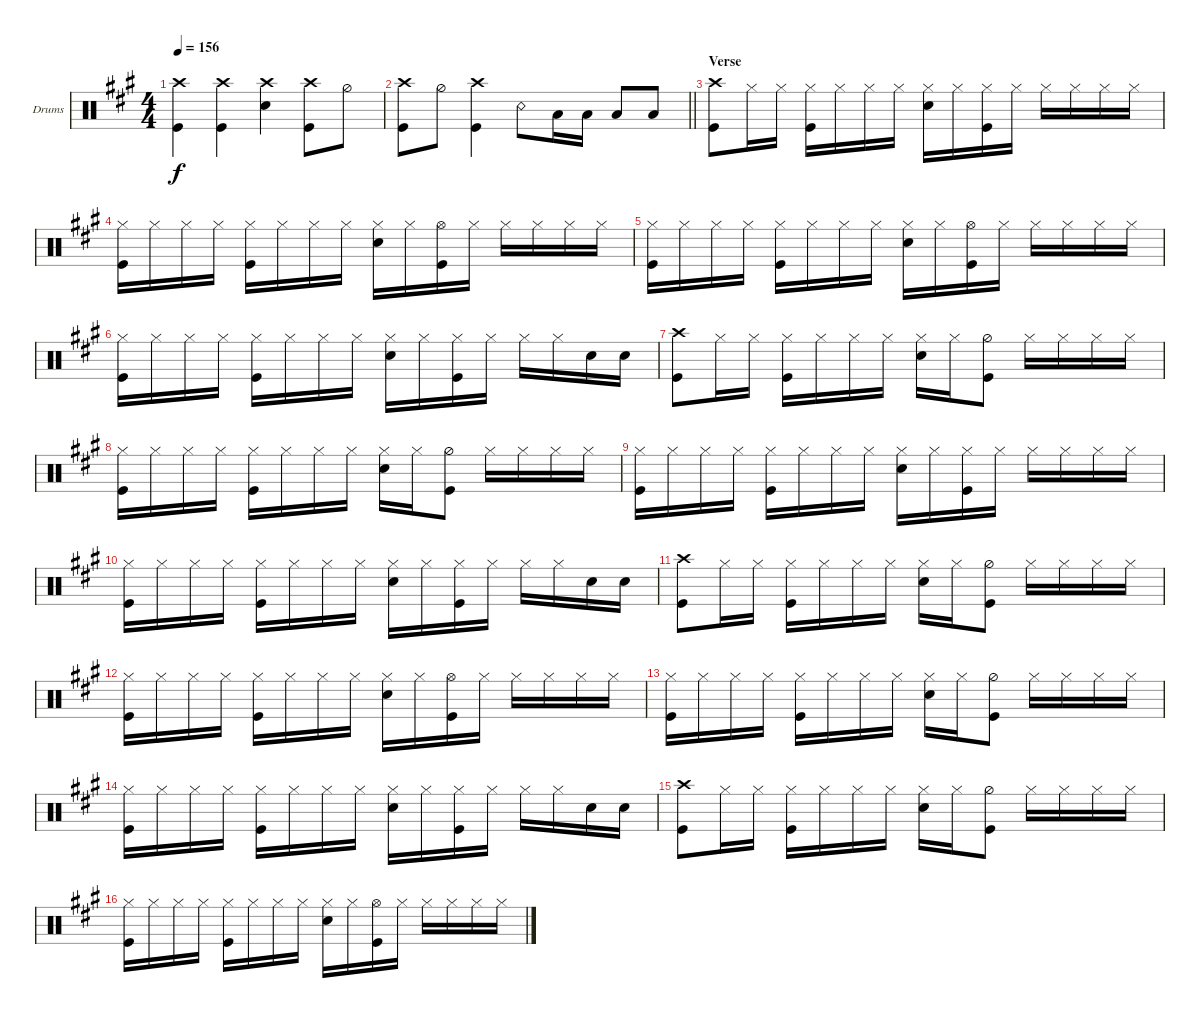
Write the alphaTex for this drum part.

\defaultSystemsLayout 4
\bracketExtendMode groupsimilarinstruments
\firstSystemTrackNameOrientation horizontal
\otherSystemsTrackNameOrientation horizontal
\track ("Drums" "Drums") {instrument percussion}
\staff {score}
\articulation defaults
\ts (4 4)
\tempo 156
\clef neutral
\ks a
("Kick (hit)" "Crash high (hit)").4{dy f} ("Kick (hit)" "Crash high (hit)").4 ("Crash high (hit)" "Snare (hit) 2").4 ("Kick (hit)" "Crash high (hit)").8 "Hi-Hat (half)".8 |
\barLineRight lightlight
("Kick (hit)" "Crash high (hit)").8 "Hi-Hat (half)".8 ("Kick (hit)" "Crash high (hit)").4 "Snare (rim shot)".8 "Low Tom (hit)".16 "Low Tom (hit)".16 "Low Tom (hit)".8 "Low Tom (hit)".8 |
\section ("" "Verse")
("Crash high (hit)" "Kick (hit)").8 "Hi-Hat (closed)".16 "Hi-Hat (closed)".16 ("Hi-Hat (closed)" "Kick (hit)").16 "Hi-Hat (closed)".16 "Hi-Hat (closed)".16 "Hi-Hat (closed)".16 ("Hi-Hat (closed)" "Snare (hit) 2").16 "Hi-Hat (closed)".16 ("Hi-Hat (closed)" "Kick (hit)").16 "Hi-Hat (closed)".16 "Hi-Hat (closed)".16 "Hi-Hat (closed)".16 "Hi-Hat (closed)".16 "Hi-Hat (closed)".16 |
("Hi-Hat (closed)" "Kick (hit)").16 "Hi-Hat (closed)".16 "Hi-Hat (closed)".16 "Hi-Hat (closed)".16 ("Hi-Hat (closed)" "Kick (hit)").16 "Hi-Hat (closed)".16 "Hi-Hat (closed)".16 "Hi-Hat (closed)".16 ("Hi-Hat (closed)" "Snare (hit) 2").16 "Hi-Hat (closed)".16 ("Hi-Hat (open)" "Kick (hit)").16 "Hi-Hat (closed)".16 "Hi-Hat (closed)".16 "Hi-Hat (closed)".16 "Hi-Hat (closed)".16 "Hi-Hat (closed)".16 |
("Hi-Hat (closed)" "Kick (hit)").16 "Hi-Hat (closed)".16 "Hi-Hat (closed)".16 "Hi-Hat (closed)".16 ("Hi-Hat (closed)" "Kick (hit)").16 "Hi-Hat (closed)".16 "Hi-Hat (closed)".16 "Hi-Hat (closed)".16 ("Hi-Hat (closed)" "Snare (hit) 2").16 "Hi-Hat (closed)".16 ("Hi-Hat (open)" "Kick (hit)").16 "Hi-Hat (closed)".16 "Hi-Hat (closed)".16 "Hi-Hat (closed)".16 "Hi-Hat (closed)".16 "Hi-Hat (closed)".16 |
("Hi-Hat (closed)" "Kick (hit)").16 "Hi-Hat (closed)".16 "Hi-Hat (closed)".16 "Hi-Hat (closed)".16 ("Hi-Hat (closed)" "Kick (hit)").16 "Hi-Hat (closed)".16 "Hi-Hat (closed)".16 "Hi-Hat (closed)".16 ("Hi-Hat (closed)" "Snare (hit) 2").16 "Hi-Hat (closed)".16 ("Hi-Hat (closed)" "Kick (hit)").16 "Hi-Hat (closed)".16 "Hi-Hat (closed)".16 "Hi-Hat (closed)".16 "Snare (hit) 2".16 "Snare (hit) 2".16 |
("Crash high (hit)" "Kick (hit)").8 "Hi-Hat (closed)".16 "Hi-Hat (closed)".16 ("Hi-Hat (closed)" "Kick (hit)").16 "Hi-Hat (closed)".16 "Hi-Hat (closed)".16 "Hi-Hat (closed)".16 ("Hi-Hat (closed)" "Snare (hit) 2").16 "Hi-Hat (closed)".16 ("Hi-Hat (half)" "Kick (hit)").8 "Hi-Hat (closed)".16 "Hi-Hat (closed)".16 "Hi-Hat (closed)".16 "Hi-Hat (closed)".16 |
("Hi-Hat (closed)" "Kick (hit)").16 "Hi-Hat (closed)".16 "Hi-Hat (closed)".16 "Hi-Hat (closed)".16 ("Hi-Hat (closed)" "Kick (hit)").16 "Hi-Hat (closed)".16 "Hi-Hat (closed)".16 "Hi-Hat (closed)".16 ("Hi-Hat (closed)" "Snare (hit) 2").16 "Hi-Hat (closed)".16 ("Hi-Hat (half)" "Kick (hit)").8 "Hi-Hat (closed)".16 "Hi-Hat (closed)".16 "Hi-Hat (closed)".16 "Hi-Hat (closed)".16 |
("Hi-Hat (closed)" "Kick (hit)").16 "Hi-Hat (closed)".16 "Hi-Hat (closed)".16 "Hi-Hat (closed)".16 ("Hi-Hat (closed)" "Kick (hit)").16 "Hi-Hat (closed)".16 "Hi-Hat (closed)".16 "Hi-Hat (closed)".16 ("Hi-Hat (closed)" "Snare (hit) 2").16 "Hi-Hat (closed)".16 ("Hi-Hat (closed)" "Kick (hit)").16 "Hi-Hat (closed)".16 "Hi-Hat (closed)".16 "Hi-Hat (closed)".16 "Hi-Hat (closed)".16 "Hi-Hat (closed)".16 |
("Hi-Hat (closed)" "Kick (hit)").16 "Hi-Hat (closed)".16 "Hi-Hat (closed)".16 "Hi-Hat (closed)".16 ("Hi-Hat (closed)" "Kick (hit)").16 "Hi-Hat (closed)".16 "Hi-Hat (closed)".16 "Hi-Hat (closed)".16 ("Hi-Hat (closed)" "Snare (hit) 2").16 "Hi-Hat (closed)".16 ("Hi-Hat (closed)" "Kick (hit)").16 "Hi-Hat (closed)".16 "Hi-Hat (closed)".16 "Hi-Hat (closed)".16 "Snare (hit) 2".16 "Snare (hit) 2".16 |
("Crash high (hit)" "Kick (hit)").8 "Hi-Hat (closed)".16 "Hi-Hat (closed)".16 ("Hi-Hat (closed)" "Kick (hit)").16 "Hi-Hat (closed)".16 "Hi-Hat (closed)".16 "Hi-Hat (closed)".16 ("Hi-Hat (closed)" "Snare (hit) 2").16 "Hi-Hat (closed)".16 ("Hi-Hat (half)" "Kick (hit)").8 "Hi-Hat (closed)".16 "Hi-Hat (closed)".16 "Hi-Hat (closed)".16 "Hi-Hat (closed)".16 |
("Hi-Hat (closed)" "Kick (hit)").16 "Hi-Hat (closed)".16 "Hi-Hat (closed)".16 "Hi-Hat (closed)".16 ("Hi-Hat (closed)" "Kick (hit)").16 "Hi-Hat (closed)".16 "Hi-Hat (closed)".16 "Hi-Hat (closed)".16 ("Hi-Hat (closed)" "Snare (hit) 2").16 "Hi-Hat (closed)".16 ("Hi-Hat (open)" "Kick (hit)").16 "Hi-Hat (closed)".16 "Hi-Hat (closed)".16 "Hi-Hat (closed)".16 "Hi-Hat (closed)".16 "Hi-Hat (closed)".16 |
("Hi-Hat (closed)" "Kick (hit)").16 "Hi-Hat (closed)".16 "Hi-Hat (closed)".16 "Hi-Hat (closed)".16 ("Hi-Hat (closed)" "Kick (hit)").16 "Hi-Hat (closed)".16 "Hi-Hat (closed)".16 "Hi-Hat (closed)".16 ("Hi-Hat (closed)" "Snare (hit) 2").16 "Hi-Hat (closed)".16 ("Hi-Hat (half)" "Kick (hit)").8 "Hi-Hat (closed)".16 "Hi-Hat (closed)".16 "Hi-Hat (closed)".16 "Hi-Hat (closed)".16 |
("Hi-Hat (closed)" "Kick (hit)").16 "Hi-Hat (closed)".16 "Hi-Hat (closed)".16 "Hi-Hat (closed)".16 ("Hi-Hat (closed)" "Kick (hit)").16 "Hi-Hat (closed)".16 "Hi-Hat (closed)".16 "Hi-Hat (closed)".16 ("Hi-Hat (closed)" "Snare (hit) 2").16 "Hi-Hat (closed)".16 ("Hi-Hat (closed)" "Kick (hit)").16 "Hi-Hat (closed)".16 "Hi-Hat (closed)".16 "Hi-Hat (closed)".16 "Snare (hit) 2".16 "Snare (hit) 2".16 |
("Crash high (hit)" "Kick (hit)").8 "Hi-Hat (closed)".16 "Hi-Hat (closed)".16 ("Hi-Hat (closed)" "Kick (hit)").16 "Hi-Hat (closed)".16 "Hi-Hat (closed)".16 "Hi-Hat (closed)".16 ("Hi-Hat (closed)" "Snare (hit) 2").16 "Hi-Hat (closed)".16 ("Hi-Hat (half)" "Kick (hit)").8 "Hi-Hat (closed)".16 "Hi-Hat (closed)".16 "Hi-Hat (closed)".16 "Hi-Hat (closed)".16 |
("Hi-Hat (closed)" "Kick (hit)").16 "Hi-Hat (closed)".16 "Hi-Hat (closed)".16 "Hi-Hat (closed)".16 ("Hi-Hat (closed)" "Kick (hit)").16 "Hi-Hat (closed)".16 "Hi-Hat (closed)".16 "Hi-Hat (closed)".16 ("Hi-Hat (closed)" "Snare (hit) 2").16 "Hi-Hat (closed)".16 ("Hi-Hat (open)" "Kick (hit)").16 "Hi-Hat (closed)".16 "Hi-Hat (closed)".16 "Hi-Hat (closed)".16 "Hi-Hat (closed)".16 "Hi-Hat (closed)".16
